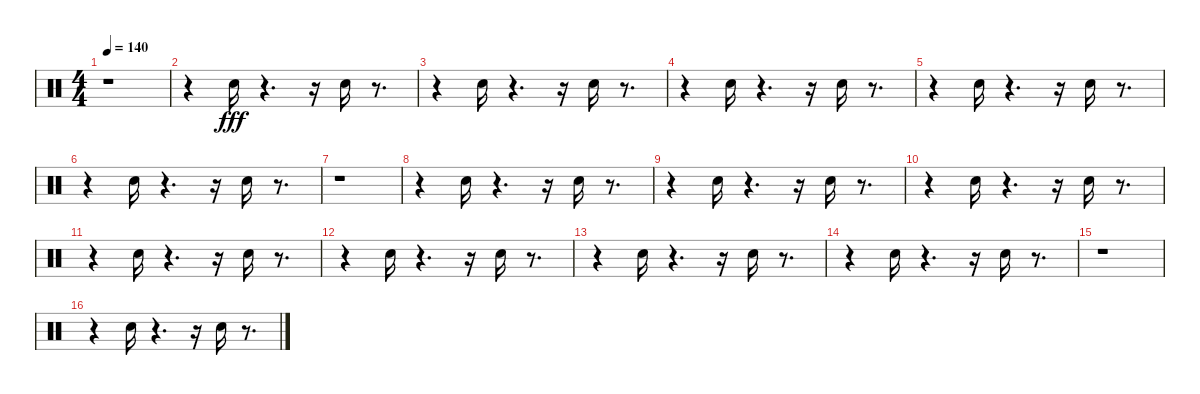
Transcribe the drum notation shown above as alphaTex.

\track "" {instrument percussion}
\staff {score}
\articulation defaults
\ts (4 4)
\tempo 140
\clef neutral
\ks c
r.1{dy fff} |
r.4 "Snare (hit) 2".16 r.4{d} r.16 "Snare (hit) 2".16 r.8{d} |
r.4 "Snare (hit) 2".16 r.4{d} r.16 "Snare (hit) 2".16 r.8{d} |
r.4 "Snare (hit) 2".16 r.4{d} r.16 "Snare (hit) 2".16 r.8{d} |
r.4 "Snare (hit) 2".16 r.4{d} r.16 "Snare (hit) 2".16 r.8{d} |
r.4 "Snare (hit) 2".16 r.4{d} r.16 "Snare (hit) 2".16 r.8{d} |
r.1 |
r.4 "Snare (hit) 2".16 r.4{d} r.16 "Snare (hit) 2".16 r.8{d} |
r.4 "Snare (hit) 2".16 r.4{d} r.16 "Snare (hit) 2".16 r.8{d} |
r.4 "Snare (hit) 2".16 r.4{d} r.16 "Snare (hit) 2".16 r.8{d} |
r.4 "Snare (hit) 2".16 r.4{d} r.16 "Snare (hit) 2".16 r.8{d} |
r.4 "Snare (hit) 2".16 r.4{d} r.16 "Snare (hit) 2".16 r.8{d} |
r.4 "Snare (hit) 2".16 r.4{d} r.16 "Snare (hit) 2".16 r.8{d} |
r.4 "Snare (hit) 2".16 r.4{d} r.16 "Snare (hit) 2".16 r.8{d} |
r.1 |
r.4 "Snare (hit) 2".16 r.4{d} r.16 "Snare (hit) 2".16 r.8{d}
